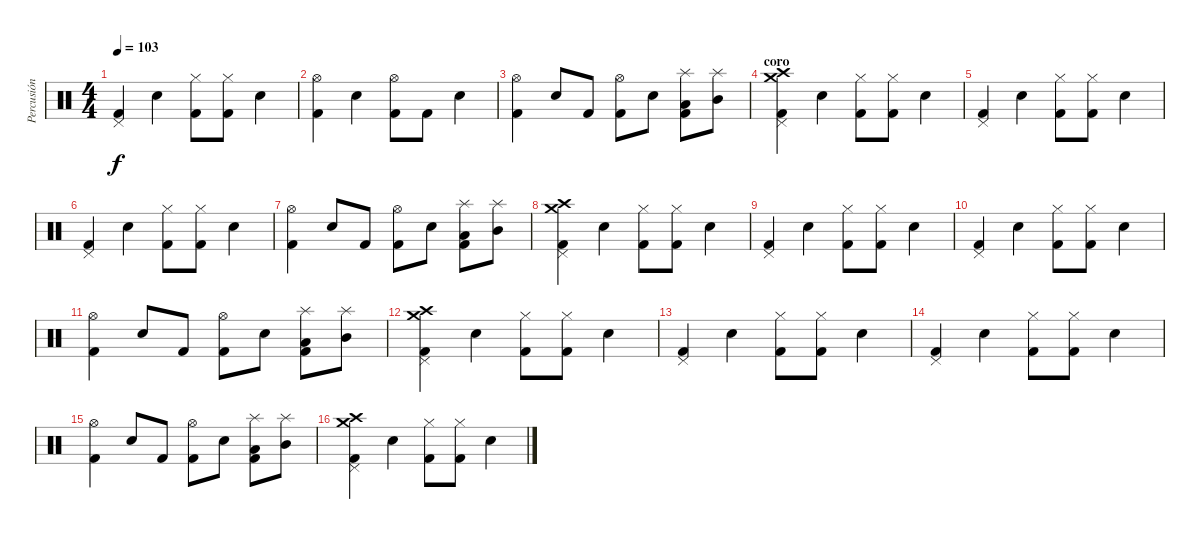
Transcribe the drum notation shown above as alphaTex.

\track ("Percusión" "Percusión") {instrument percussion}
\staff {score}
\articulation defaults
\ts (4 4)
\tempo 103
\clef neutral
\ks c
("Pedal Hi-Hat (hit)" "Kick (hit) 2").4{dy f} "Electric Snare (hit)".4 ("Hi-Hat (closed)" "Kick (hit) 2").8 ("Hi-Hat (closed)" "Kick (hit) 2").8 "Electric Snare (hit)".4 |
("Hi-Hat (open)" "Kick (hit) 2").4 "Electric Snare (hit)".4 ("Hi-Hat (open)" "Kick (hit) 2").8 "Kick (hit) 2".8 "Electric Snare (hit)".4 |
("Hi-Hat (open)" "Kick (hit) 2").4 "Electric Snare (hit)".8 "Kick (hit) 2".8 ("Hi-Hat (open)" "Kick (hit) 2").8 "Electric Snare (hit)".8 ("Splash (hit)" "Low Tom (hit)" "Kick (hit) 2").8 ("Splash (hit)" "Mid Tom (hit)").8 |
\section ("" "coro")
("Crash medium (hit)" "Crash high (hit)" "Pedal Hi-Hat (hit)" "Kick (hit) 2").4 "Electric Snare (hit)".4 ("Hi-Hat (closed)" "Kick (hit) 2").8 ("Hi-Hat (closed)" "Kick (hit) 2").8 "Electric Snare (hit)".4 |
("Pedal Hi-Hat (hit)" "Kick (hit) 2").4 "Electric Snare (hit)".4 ("Hi-Hat (closed)" "Kick (hit) 2").8 ("Hi-Hat (closed)" "Kick (hit) 2").8 "Electric Snare (hit)".4 |
("Pedal Hi-Hat (hit)" "Kick (hit) 2").4 "Electric Snare (hit)".4 ("Hi-Hat (closed)" "Kick (hit) 2").8 ("Hi-Hat (closed)" "Kick (hit) 2").8 "Electric Snare (hit)".4 |
("Hi-Hat (open)" "Kick (hit) 2").4 "Electric Snare (hit)".8 "Kick (hit) 2".8 ("Hi-Hat (open)" "Kick (hit) 2").8 "Electric Snare (hit)".8 ("Splash (hit)" "Low Tom (hit)" "Kick (hit) 2").8 ("Splash (hit)" "Mid Tom (hit)").8 |
("Crash medium (hit)" "Crash high (hit)" "Pedal Hi-Hat (hit)" "Kick (hit) 2").4 "Electric Snare (hit)".4 ("Hi-Hat (closed)" "Kick (hit) 2").8 ("Hi-Hat (closed)" "Kick (hit) 2").8 "Electric Snare (hit)".4 |
("Pedal Hi-Hat (hit)" "Kick (hit) 2").4 "Electric Snare (hit)".4 ("Hi-Hat (closed)" "Kick (hit) 2").8 ("Hi-Hat (closed)" "Kick (hit) 2").8 "Electric Snare (hit)".4 |
("Pedal Hi-Hat (hit)" "Kick (hit) 2").4 "Electric Snare (hit)".4 ("Hi-Hat (closed)" "Kick (hit) 2").8 ("Hi-Hat (closed)" "Kick (hit) 2").8 "Electric Snare (hit)".4 |
("Hi-Hat (open)" "Kick (hit) 2").4 "Electric Snare (hit)".8 "Kick (hit) 2".8 ("Hi-Hat (open)" "Kick (hit) 2").8 "Electric Snare (hit)".8 ("Splash (hit)" "Low Tom (hit)" "Kick (hit) 2").8 ("Splash (hit)" "Mid Tom (hit)").8 |
("Crash medium (hit)" "Crash high (hit)" "Pedal Hi-Hat (hit)" "Kick (hit) 2").4 "Electric Snare (hit)".4 ("Hi-Hat (closed)" "Kick (hit) 2").8 ("Hi-Hat (closed)" "Kick (hit) 2").8 "Electric Snare (hit)".4 |
("Pedal Hi-Hat (hit)" "Kick (hit) 2").4 "Electric Snare (hit)".4 ("Hi-Hat (closed)" "Kick (hit) 2").8 ("Hi-Hat (closed)" "Kick (hit) 2").8 "Electric Snare (hit)".4 |
("Pedal Hi-Hat (hit)" "Kick (hit) 2").4 "Electric Snare (hit)".4 ("Hi-Hat (closed)" "Kick (hit) 2").8 ("Hi-Hat (closed)" "Kick (hit) 2").8 "Electric Snare (hit)".4 |
("Hi-Hat (open)" "Kick (hit) 2").4 "Electric Snare (hit)".8 "Kick (hit) 2".8 ("Hi-Hat (open)" "Kick (hit) 2").8 "Electric Snare (hit)".8 ("Splash (hit)" "Low Tom (hit)" "Kick (hit) 2").8 ("Splash (hit)" "Mid Tom (hit)").8 |
("Crash medium (hit)" "Crash high (hit)" "Pedal Hi-Hat (hit)" "Kick (hit) 2").4 "Electric Snare (hit)".4 ("Hi-Hat (closed)" "Kick (hit) 2").8 ("Hi-Hat (closed)" "Kick (hit) 2").8 "Electric Snare (hit)".4
